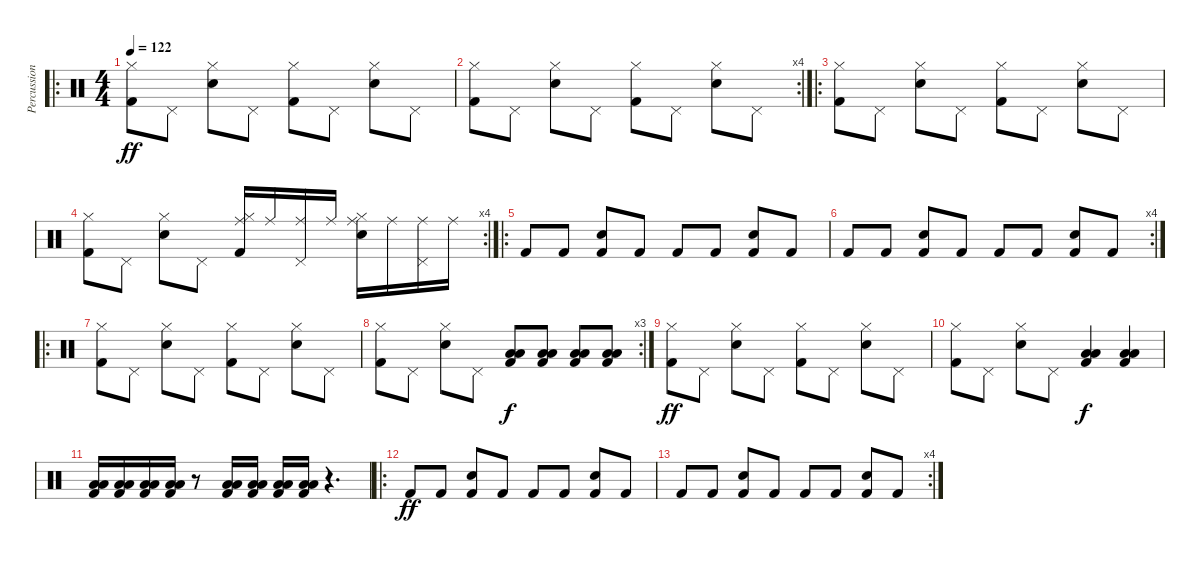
\track ("Percussion" "Percussion") {instrument percussion}
\staff {score}
\articulation defaults
\ro
\ts (4 4)
\tempo 122
\clef neutral
\ks c
("Kick (hit) 2" "Hi-Hat (closed)").8{dy ff} "Pedal Hi-Hat (hit)".8 ("Snare (hit) 2" "Hi-Hat (closed)").8 "Pedal Hi-Hat (hit)".8 ("Kick (hit) 2" "Hi-Hat (closed)").8 "Pedal Hi-Hat (hit)".8 ("Snare (hit) 2" "Hi-Hat (closed)").8 "Pedal Hi-Hat (hit)".8 |
\rc 4
("Kick (hit) 2" "Hi-Hat (closed)").8 "Pedal Hi-Hat (hit)".8 ("Snare (hit) 2" "Hi-Hat (closed)").8 "Pedal Hi-Hat (hit)".8 ("Kick (hit) 2" "Hi-Hat (closed)").8 "Pedal Hi-Hat (hit)".8 ("Snare (hit) 2" "Hi-Hat (closed)").8 "Pedal Hi-Hat (hit)".8 |
\ro
("Kick (hit) 2" "Hi-Hat (closed)").8 "Pedal Hi-Hat (hit)".8 ("Snare (hit) 2" "Hi-Hat (closed)").8 "Pedal Hi-Hat (hit)".8 ("Kick (hit) 2" "Hi-Hat (closed)").8 "Pedal Hi-Hat (hit)".8 ("Snare (hit) 2" "Hi-Hat (closed)").8 "Pedal Hi-Hat (hit)".8 |
\rc 4
("Kick (hit) 2" "Hi-Hat (closed)").8 "Pedal Hi-Hat (hit)".8 ("Snare (hit) 2" "Hi-Hat (closed)").8 "Pedal Hi-Hat (hit)".8 ("Ride (middle)" "Kick (hit) 2" "Hi-Hat (closed)").16 "Ride (middle)".16 ("Ride (middle)" "Pedal Hi-Hat (hit)").16 "Ride (middle)".16 ("Ride (middle)" "Snare (hit) 2" "Hi-Hat (closed)").16 "Ride (middle)".16 ("Ride (middle)" "Pedal Hi-Hat (hit)").16 "Ride (middle)".16 |
\ro "Kick (hit) 2".8 "Kick (hit) 2".8
("Snare (hit) 2" "Kick (hit) 2").8 "Kick (hit) 2".8 "Kick (hit) 2".8 "Kick (hit) 2".8 ("Snare (hit) 2" "Kick (hit) 2").8 "Kick (hit) 2".8 |
\rc 4 "Kick (hit) 2".8 "Kick (hit) 2".8
("Snare (hit) 2" "Kick (hit) 2").8 "Kick (hit) 2".8 "Kick (hit) 2".8 "Kick (hit) 2".8 ("Snare (hit) 2" "Kick (hit) 2").8 "Kick (hit) 2".8 |
\ro
("Kick (hit) 2" "Hi-Hat (closed)").8 "Pedal Hi-Hat (hit)".8 ("Snare (hit) 2" "Hi-Hat (closed)").8 "Pedal Hi-Hat (hit)".8 ("Kick (hit) 2" "Hi-Hat (closed)").8 "Pedal Hi-Hat (hit)".8 ("Snare (hit) 2" "Hi-Hat (closed)").8 "Pedal Hi-Hat (hit)".8 |
\rc 3
("Kick (hit) 2" "Hi-Hat (closed)").8 "Pedal Hi-Hat (hit)".8 ("Snare (hit) 2" "Hi-Hat (closed)").8 "Pedal Hi-Hat (hit)".8 ("Low Floor Tom (hit)" "Kick (hit) 2" "Low Tom (hit)").8{dy f} ("Low Floor Tom (hit)" "Kick (hit) 2" "Low Tom (hit)").8 ("Low Floor Tom (hit)" "Kick (hit) 2" "Low Tom (hit)").8 ("Low Floor Tom (hit)" "Kick (hit) 2" "Low Tom (hit)").8 |
("Kick (hit) 2" "Hi-Hat (closed)").8{dy ff} "Pedal Hi-Hat (hit)".8 ("Snare (hit) 2" "Hi-Hat (closed)").8 "Pedal Hi-Hat (hit)".8 ("Kick (hit) 2" "Hi-Hat (closed)").8 "Pedal Hi-Hat (hit)".8 ("Snare (hit) 2" "Hi-Hat (closed)").8 "Pedal Hi-Hat (hit)".8 |
("Kick (hit) 2" "Hi-Hat (closed)").8 "Pedal Hi-Hat (hit)".8 ("Snare (hit) 2" "Hi-Hat (closed)").8 "Pedal Hi-Hat (hit)".8 ("Low Floor Tom (hit)" "Kick (hit) 2" "Low Tom (hit)").4{dy f} ("Low Floor Tom (hit)" "Kick (hit) 2" "Low Tom (hit)").4 |
("Low Floor Tom (hit)" "Kick (hit) 2" "Low Tom (hit)").16 ("Low Floor Tom (hit)" "Kick (hit) 2" "Low Tom (hit)").16 ("Low Floor Tom (hit)" "Kick (hit) 2" "Low Tom (hit)").16 ("Low Floor Tom (hit)" "Kick (hit) 2" "Low Tom (hit)").16 r.8 ("Low Floor Tom (hit)" "Kick (hit) 2" "Low Tom (hit)").16 ("Low Floor Tom (hit)" "Kick (hit) 2" "Low Tom (hit)").16 ("Low Floor Tom (hit)" "Kick (hit) 2" "Low Tom (hit)").16 ("Low Floor Tom (hit)" "Kick (hit) 2" "Low Tom (hit)").16 r.4{d} |
\ro "Kick (hit) 2".8{dy ff} "Kick (hit) 2".8
("Snare (hit) 2" "Kick (hit) 2").8 "Kick (hit) 2".8 "Kick (hit) 2".8 "Kick (hit) 2".8 ("Snare (hit) 2" "Kick (hit) 2").8 "Kick (hit) 2".8 |
\rc 4 "Kick (hit) 2".8 "Kick (hit) 2".8
("Snare (hit) 2" "Kick (hit) 2").8 "Kick (hit) 2".8 "Kick (hit) 2".8 "Kick (hit) 2".8 ("Snare (hit) 2" "Kick (hit) 2").8 "Kick (hit) 2".8
